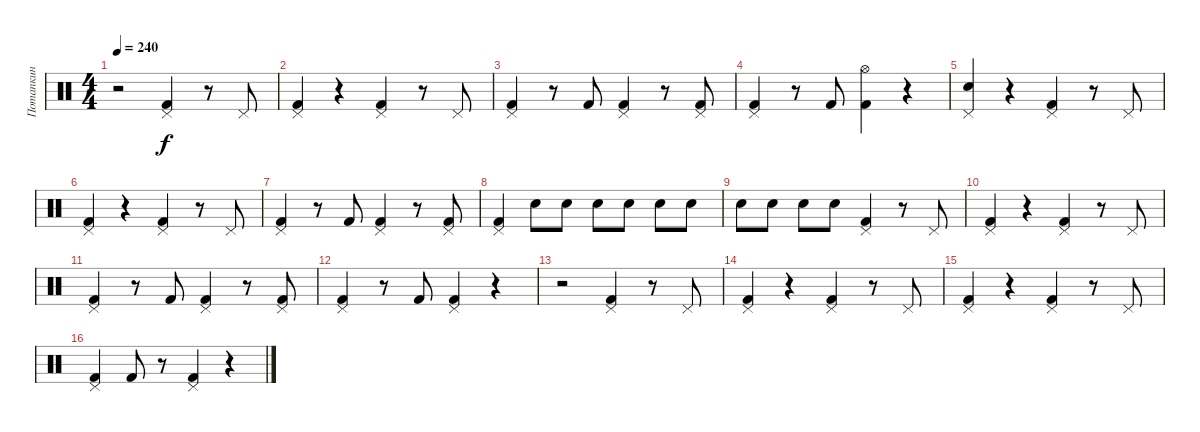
\track ("Потапкин" "Потапкин") {instrument percussion}
\staff {score}
\articulation defaults
\ts (4 4)
\tempo 240
\clef neutral
\ks c
r.2{dy f} ("Pedal Hi-Hat (hit)" "Kick (hit) 2").4 r.8 "Pedal Hi-Hat (hit)".8 |
("Pedal Hi-Hat (hit)" "Kick (hit) 2").4 r.4 ("Pedal Hi-Hat (hit)" "Kick (hit) 2").4 r.8 "Pedal Hi-Hat (hit)".8 |
("Pedal Hi-Hat (hit)" "Kick (hit) 2").4 r.8 "Kick (hit) 2".8 ("Pedal Hi-Hat (hit)" "Kick (hit) 2").4 r.8 ("Pedal Hi-Hat (hit)" "Kick (hit) 2").8 |
("Pedal Hi-Hat (hit)" "Kick (hit) 2").4 r.8 "Kick (hit) 2".8 ("Hi-Hat (open)" "Kick (hit) 2").4 r.4 |
("Pedal Hi-Hat (hit)" "Electric Snare (hit)").4 r.4 ("Pedal Hi-Hat (hit)" "Kick (hit) 2").4 r.8 "Pedal Hi-Hat (hit)".8 |
("Pedal Hi-Hat (hit)" "Kick (hit) 2").4 r.4 ("Pedal Hi-Hat (hit)" "Kick (hit) 2").4 r.8 "Pedal Hi-Hat (hit)".8 |
("Pedal Hi-Hat (hit)" "Kick (hit) 2").4 r.8 "Kick (hit) 2".8 ("Pedal Hi-Hat (hit)" "Kick (hit) 2").4 r.8 ("Pedal Hi-Hat (hit)" "Kick (hit) 2").8 |
("Pedal Hi-Hat (hit)" "Kick (hit) 2").4 "Electric Snare (hit)".8 "Electric Snare (hit)".8 "Electric Snare (hit)".8 "Electric Snare (hit)".8 "Electric Snare (hit)".8 "Electric Snare (hit)".8 |
"Snare (hit) 2".8 "Snare (hit) 2".8 "Snare (hit) 2".8 "Snare (hit) 2".8 ("Pedal Hi-Hat (hit)" "Kick (hit) 2").4 r.8 "Pedal Hi-Hat (hit)".8 |
("Pedal Hi-Hat (hit)" "Kick (hit) 2").4 r.4 ("Pedal Hi-Hat (hit)" "Kick (hit) 2").4 r.8 "Pedal Hi-Hat (hit)".8 |
("Pedal Hi-Hat (hit)" "Kick (hit) 2").4 r.8 "Kick (hit) 2".8 ("Pedal Hi-Hat (hit)" "Kick (hit) 2").4 r.8 ("Pedal Hi-Hat (hit)" "Kick (hit) 2").8 |
("Pedal Hi-Hat (hit)" "Kick (hit) 2").4 r.8 "Kick (hit) 2".8 ("Pedal Hi-Hat (hit)" "Kick (hit) 2").4 r.4 |
r.2 ("Pedal Hi-Hat (hit)" "Kick (hit) 2").4 r.8 "Pedal Hi-Hat (hit)".8 |
("Pedal Hi-Hat (hit)" "Kick (hit) 2").4 r.4 ("Pedal Hi-Hat (hit)" "Kick (hit) 2").4 r.8 "Pedal Hi-Hat (hit)".8 |
("Pedal Hi-Hat (hit)" "Kick (hit) 2").4 r.4 ("Pedal Hi-Hat (hit)" "Kick (hit) 2").4 r.8 "Pedal Hi-Hat (hit)".8 |
("Pedal Hi-Hat (hit)" "Kick (hit) 2").4 "Kick (hit) 2".8 r.8 ("Pedal Hi-Hat (hit)" "Kick (hit) 2").4 r.4
